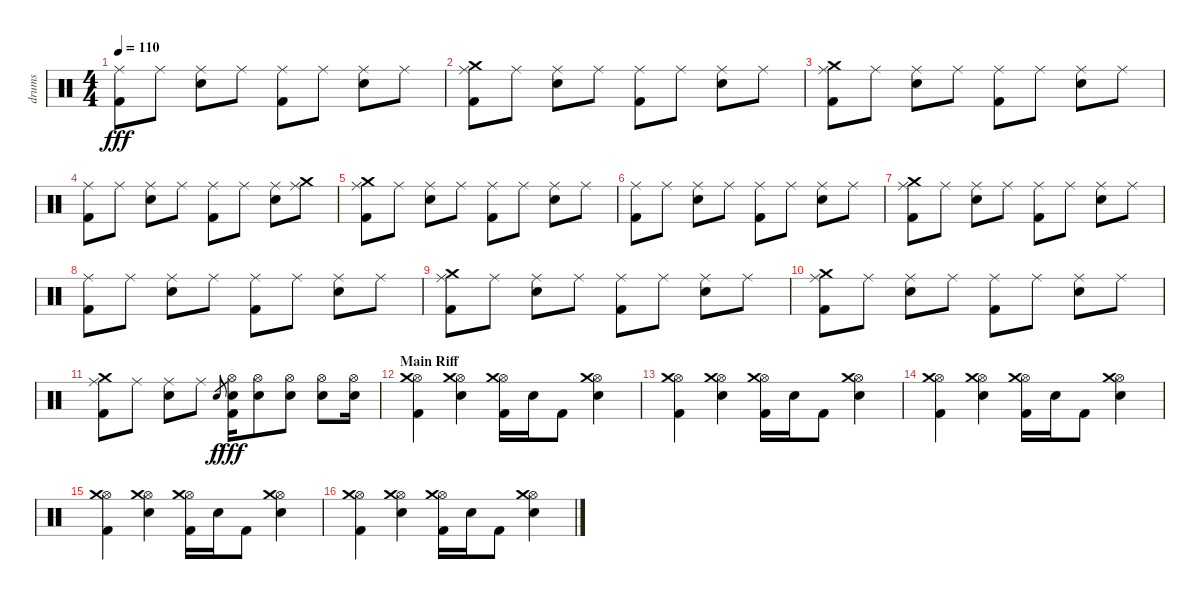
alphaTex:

\track ("drums" "drums") {instrument percussion}
\staff {score}
\articulation defaults
\ts (4 4)
\tempo 110
\clef neutral
\ks c
("Kick (hit) 2" "Ride (middle)").8{dy fff} "Ride (middle)".8 ("Electric Snare (hit)" "Ride (middle)").8 "Ride (middle)".8 ("Kick (hit) 2" "Ride (middle)").8 "Ride (middle)".8 ("Electric Snare (hit)" "Ride (middle)").8 "Ride (middle)".8 |
("Kick (hit) 2" "Ride (middle)" "Crash medium (hit)").8 "Ride (middle)".8 ("Electric Snare (hit)" "Ride (middle)").8 "Ride (middle)".8 ("Kick (hit) 2" "Ride (middle)").8 "Ride (middle)".8 ("Electric Snare (hit)" "Ride (middle)").8 "Ride (middle)".8 |
("Kick (hit) 2" "Ride (middle)" "Crash medium (hit)").8 "Ride (middle)".8 ("Electric Snare (hit)" "Ride (middle)").8 "Ride (middle)".8 ("Kick (hit) 2" "Ride (middle)").8 "Ride (middle)".8 ("Electric Snare (hit)" "Ride (middle)").8 "Ride (middle)".8 |
("Kick (hit) 2" "Ride (middle)").8 "Ride (middle)".8 ("Electric Snare (hit)" "Ride (middle)").8 "Ride (middle)".8 ("Kick (hit) 2" "Ride (middle)").8 "Ride (middle)".8 ("Electric Snare (hit)" "Ride (middle)").8 ("Ride (middle)" "Crash medium (hit)").8 |
("Kick (hit) 2" "Ride (middle)" "Crash medium (hit)").8 "Ride (middle)".8 ("Electric Snare (hit)" "Ride (middle)").8 "Ride (middle)".8 ("Kick (hit) 2" "Ride (middle)").8 "Ride (middle)".8 ("Electric Snare (hit)" "Ride (middle)").8 "Ride (middle)".8 |
("Kick (hit) 2" "Ride (middle)").8 "Ride (middle)".8 ("Electric Snare (hit)" "Ride (middle)").8 "Ride (middle)".8 ("Kick (hit) 2" "Ride (middle)").8 "Ride (middle)".8 ("Electric Snare (hit)" "Ride (middle)").8 "Ride (middle)".8 |
("Kick (hit) 2" "Ride (middle)" "Crash medium (hit)").8 "Ride (middle)".8 ("Electric Snare (hit)" "Ride (middle)").8 "Ride (middle)".8 ("Kick (hit) 2" "Ride (middle)").8 "Ride (middle)".8 ("Electric Snare (hit)" "Ride (middle)").8 "Ride (middle)".8 |
("Kick (hit) 2" "Ride (middle)").8 "Ride (middle)".8 ("Electric Snare (hit)" "Ride (middle)").8 "Ride (middle)".8 ("Kick (hit) 2" "Ride (middle)").8 "Ride (middle)".8 ("Electric Snare (hit)" "Ride (middle)").8 "Ride (middle)".8 |
("Kick (hit) 2" "Ride (middle)" "Crash medium (hit)").8 "Ride (middle)".8 ("Electric Snare (hit)" "Ride (middle)").8 "Ride (middle)".8 ("Kick (hit) 2" "Ride (middle)").8 "Ride (middle)".8 ("Electric Snare (hit)" "Ride (middle)").8 "Ride (middle)".8 |
("Kick (hit) 2" "Ride (middle)" "Crash medium (hit)").8 "Ride (middle)".8 ("Electric Snare (hit)" "Ride (middle)").8 "Ride (middle)".8 ("Kick (hit) 2" "Ride (middle)").8 "Ride (middle)".8 ("Electric Snare (hit)" "Ride (middle)").8 "Ride (middle)".8 |
("Kick (hit) 2" "Ride (middle)" "Crash medium (hit)").8 "Ride (middle)".8 ("Electric Snare (hit)" "Ride (middle)").8 "Ride (middle)".8 "Electric Snare (hit)".8{gr dy f} ("Kick (hit) 2" "Electric Snare (hit)" "Hi-Hat (open)").16{dy fff} ("Electric Snare (hit)" "Hi-Hat (open)").8 ("Electric Snare (hit)" "Hi-Hat (open)").8 ("Electric Snare (hit)" "Hi-Hat (open)").8 ("Electric Snare (hit)" "Hi-Hat (open)").16 |
\section ("" "Main Riff")
("Kick (hit) 2" "Hi-Hat (open)" "Crash medium (hit)").4 ("Electric Snare (hit)" "Hi-Hat (open)" "Crash medium (hit)").4 ("Kick (hit) 2" "Hi-Hat (open)" "Crash medium (hit)").16 "Electric Snare (hit)".16 "Kick (hit) 2".8 ("Electric Snare (hit)" "Hi-Hat (open)" "Crash medium (hit)").4 |
("Kick (hit) 2" "Hi-Hat (open)" "Crash medium (hit)").4 ("Electric Snare (hit)" "Hi-Hat (open)" "Crash medium (hit)").4 ("Kick (hit) 2" "Hi-Hat (open)" "Crash medium (hit)").16 "Electric Snare (hit)".16 "Kick (hit) 2".8 ("Electric Snare (hit)" "Hi-Hat (open)" "Crash medium (hit)").4 |
("Kick (hit) 2" "Hi-Hat (open)" "Crash medium (hit)").4 ("Electric Snare (hit)" "Hi-Hat (open)" "Crash medium (hit)").4 ("Kick (hit) 2" "Hi-Hat (open)" "Crash medium (hit)").16 "Electric Snare (hit)".16 "Kick (hit) 2".8 ("Electric Snare (hit)" "Hi-Hat (open)" "Crash medium (hit)").4 |
("Kick (hit) 2" "Hi-Hat (open)" "Crash medium (hit)").4 ("Electric Snare (hit)" "Hi-Hat (open)" "Crash medium (hit)").4 ("Kick (hit) 2" "Hi-Hat (open)" "Crash medium (hit)").16 "Electric Snare (hit)".16 "Kick (hit) 2".8 ("Electric Snare (hit)" "Hi-Hat (open)" "Crash medium (hit)").4 |
("Kick (hit) 2" "Hi-Hat (open)" "Crash medium (hit)").4 ("Electric Snare (hit)" "Hi-Hat (open)" "Crash medium (hit)").4 ("Kick (hit) 2" "Hi-Hat (open)" "Crash medium (hit)").16 "Electric Snare (hit)".16 "Kick (hit) 2".8 ("Electric Snare (hit)" "Hi-Hat (open)" "Crash medium (hit)").4
